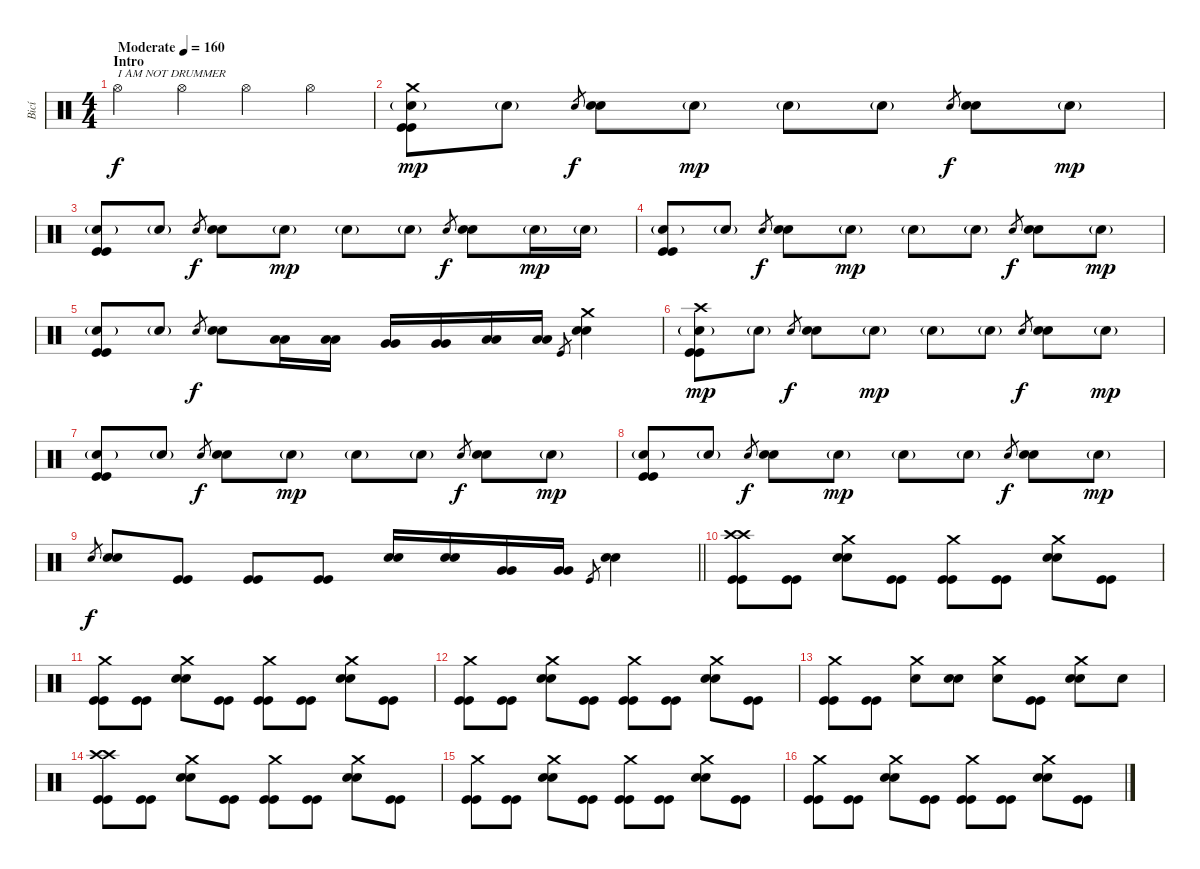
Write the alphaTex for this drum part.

\track ("Bicí" "Bicí") {instrument percussion}
\staff {score}
\articulation defaults
\ts (4 4)
\section ("" "Intro")
\tempo (160 "Moderate")
\clef neutral
\ks c "Hi-Hat (open)".4{txt "I AM NOT DRUMMER" dy f} "Hi-Hat (open)".4 "Hi-Hat (open)".4 "Hi-Hat (open)".4
|
("Crash medium (hit)" "Electric Snare (hit)"{g} "Kick (hit)" "Kick (hit)").8{dy mp} "Electric Snare (hit)"{g}.8 "Electric Snare (hit)".8{gr dy f} ("Electric Snare (hit)" "Electric Snare (hit)").8 "Electric Snare (hit)"{g}.8{dy mp} "Electric Snare (hit)"{g}.8 "Electric Snare (hit)"{g}.8 "Electric Snare (hit)".8{gr dy f} ("Electric Snare (hit)" "Electric Snare (hit)").8 "Electric Snare (hit)"{g}.8{dy mp} |
("Electric Snare (hit)"{g} "Kick (hit)" "Kick (hit)").8 "Electric Snare (hit)"{g}.8 "Electric Snare (hit)".8{gr dy f} ("Electric Snare (hit)" "Electric Snare (hit)").8 "Electric Snare (hit)"{g}.8{dy mp} "Electric Snare (hit)"{g}.8 "Electric Snare (hit)"{g}.8 "Electric Snare (hit)".8{gr dy f} ("Electric Snare (hit)" "Electric Snare (hit)").8 "Electric Snare (hit)"{g}.16{dy mp} "Electric Snare (hit)"{g}.16 |
("Electric Snare (hit)"{g} "Kick (hit)" "Kick (hit)").8 "Electric Snare (hit)"{g}.8 "Electric Snare (hit)".8{gr dy f} ("Electric Snare (hit)" "Electric Snare (hit)").8 "Electric Snare (hit)"{g}.8{dy mp} "Electric Snare (hit)"{g}.8 "Electric Snare (hit)"{g}.8 "Electric Snare (hit)".8{gr dy f} ("Electric Snare (hit)" "Electric Snare (hit)").8 "Electric Snare (hit)"{g}.8{dy mp} |
("Electric Snare (hit)"{g} "Kick (hit)" "Kick (hit)").8 "Electric Snare (hit)"{g}.8 "Electric Snare (hit)".8{gr dy f} ("Electric Snare (hit)" "Electric Snare (hit)").8 ("Low Tom (hit)" "Low Tom (hit)").16 ("Low Tom (hit)" "Low Tom (hit)").16 ("Very Low Tom (hit)" "Very Low Tom (hit)").16 ("Very Low Tom (hit)" "Very Low Tom (hit)").16 ("Low Floor Tom (hit)" "Low Floor Tom (hit)").16 ("Low Floor Tom (hit)" "Low Floor Tom (hit)").16 "Kick (hit)".8{gr} ("Crash medium (hit)" "Electric Snare (hit)" "Electric Snare (hit)").4 |
("Crash high (hit)" "Electric Snare (hit)"{g} "Kick (hit)" "Kick (hit)").8{dy mp} "Electric Snare (hit)"{g}.8 "Electric Snare (hit)".8{gr dy f} ("Electric Snare (hit)" "Electric Snare (hit)").8 "Electric Snare (hit)"{g}.8{dy mp} "Electric Snare (hit)"{g}.8 "Electric Snare (hit)"{g}.8 "Electric Snare (hit)".8{gr dy f} ("Electric Snare (hit)" "Electric Snare (hit)").8 "Electric Snare (hit)"{g}.8{dy mp} |
("Electric Snare (hit)"{g} "Kick (hit)" "Kick (hit)").8 "Electric Snare (hit)"{g}.8 "Electric Snare (hit)".8{gr dy f} ("Electric Snare (hit)" "Electric Snare (hit)").8 "Electric Snare (hit)"{g}.8{dy mp} "Electric Snare (hit)"{g}.8 "Electric Snare (hit)"{g}.8 "Electric Snare (hit)".8{gr dy f} ("Electric Snare (hit)" "Electric Snare (hit)").8 "Electric Snare (hit)"{g}.8{dy mp} |
("Electric Snare (hit)"{g} "Kick (hit)" "Kick (hit)").8 "Electric Snare (hit)"{g}.8 "Electric Snare (hit)".8{gr dy f} ("Electric Snare (hit)" "Electric Snare (hit)").8 "Electric Snare (hit)"{g}.8{dy mp} "Electric Snare (hit)"{g}.8 "Electric Snare (hit)"{g}.8 "Electric Snare (hit)".8{gr dy f} ("Electric Snare (hit)" "Electric Snare (hit)").8 "Electric Snare (hit)"{g}.8{dy mp} |
\barLineRight lightlight "Electric Snare (hit)".8{gr dy f}
("Electric Snare (hit)" "Electric Snare (hit)").8 ("Kick (hit)" "Kick (hit)").8 ("Kick (hit)" "Kick (hit)").8 ("Kick (hit)" "Kick (hit)").8 ("Electric Snare (hit)" "Electric Snare (hit)").16 ("Electric Snare (hit)" "Electric Snare (hit)").16 ("Very Low Tom (hit)" "Very Low Tom (hit)").16 ("Very Low Tom (hit)" "Very Low Tom (hit)").16 "Kick (hit)".8{gr} ("Electric Snare (hit)" "Electric Snare (hit)").4 |
\section ("" "")
("Crash high (hit)" "Crash high (hit)" "Kick (hit)" "Kick (hit)").8 ("Kick (hit)" "Kick (hit)").8 ("Crash medium (hit)" "Electric Snare (hit)" "Electric Snare (hit)").8 ("Kick (hit)" "Kick (hit)").8 ("Crash medium (hit)" "Kick (hit)" "Kick (hit)").8 ("Kick (hit)" "Kick (hit)").8 ("Crash medium (hit)" "Electric Snare (hit)" "Electric Snare (hit)").8 ("Kick (hit)" "Kick (hit)").8 |
("Crash medium (hit)" "Kick (hit)" "Kick (hit)").8 ("Kick (hit)" "Kick (hit)").8 ("Crash medium (hit)" "Electric Snare (hit)" "Electric Snare (hit)").8 ("Kick (hit)" "Kick (hit)").8 ("Crash medium (hit)" "Kick (hit)" "Kick (hit)").8 ("Kick (hit)" "Kick (hit)").8 ("Crash medium (hit)" "Electric Snare (hit)" "Electric Snare (hit)").8 ("Kick (hit)" "Kick (hit)").8 |
("Crash medium (hit)" "Kick (hit)" "Kick (hit)").8 ("Kick (hit)" "Kick (hit)").8 ("Crash medium (hit)" "Electric Snare (hit)" "Electric Snare (hit)").8 ("Kick (hit)" "Kick (hit)").8 ("Crash medium (hit)" "Kick (hit)" "Kick (hit)").8 ("Kick (hit)" "Kick (hit)").8 ("Crash medium (hit)" "Electric Snare (hit)" "Electric Snare (hit)").8 ("Kick (hit)" "Kick (hit)").8 |
("Crash medium (hit)" "Kick (hit)" "Kick (hit)").8 ("Kick (hit)" "Kick (hit)").8 ("Crash medium (hit)" "Snare (hit)").8 ("Electric Snare (hit)" "Electric Snare (hit)").8 ("Crash medium (hit)" "Snare (hit)").8 ("Kick (hit)" "Kick (hit)").8 ("Crash medium (hit)" "Electric Snare (hit)" "Electric Snare (hit)").8 "Snare (hit)".8 |
("Crash high (hit)" "Crash high (hit)" "Kick (hit)" "Kick (hit)").8 ("Kick (hit)" "Kick (hit)").8 ("Crash medium (hit)" "Electric Snare (hit)" "Electric Snare (hit)").8 ("Kick (hit)" "Kick (hit)").8 ("Crash medium (hit)" "Kick (hit)" "Kick (hit)").8 ("Kick (hit)" "Kick (hit)").8 ("Crash medium (hit)" "Electric Snare (hit)" "Electric Snare (hit)").8 ("Kick (hit)" "Kick (hit)").8 |
("Crash medium (hit)" "Kick (hit)" "Kick (hit)").8 ("Kick (hit)" "Kick (hit)").8 ("Crash medium (hit)" "Electric Snare (hit)" "Electric Snare (hit)").8 ("Kick (hit)" "Kick (hit)").8 ("Crash medium (hit)" "Kick (hit)" "Kick (hit)").8 ("Kick (hit)" "Kick (hit)").8 ("Crash medium (hit)" "Electric Snare (hit)" "Electric Snare (hit)").8 ("Kick (hit)" "Kick (hit)").8 |
("Crash medium (hit)" "Kick (hit)" "Kick (hit)").8 ("Kick (hit)" "Kick (hit)").8 ("Crash medium (hit)" "Electric Snare (hit)" "Electric Snare (hit)").8 ("Kick (hit)" "Kick (hit)").8 ("Crash medium (hit)" "Kick (hit)" "Kick (hit)").8 ("Kick (hit)" "Kick (hit)").8 ("Crash medium (hit)" "Electric Snare (hit)" "Electric Snare (hit)").8 ("Kick (hit)" "Kick (hit)").8
